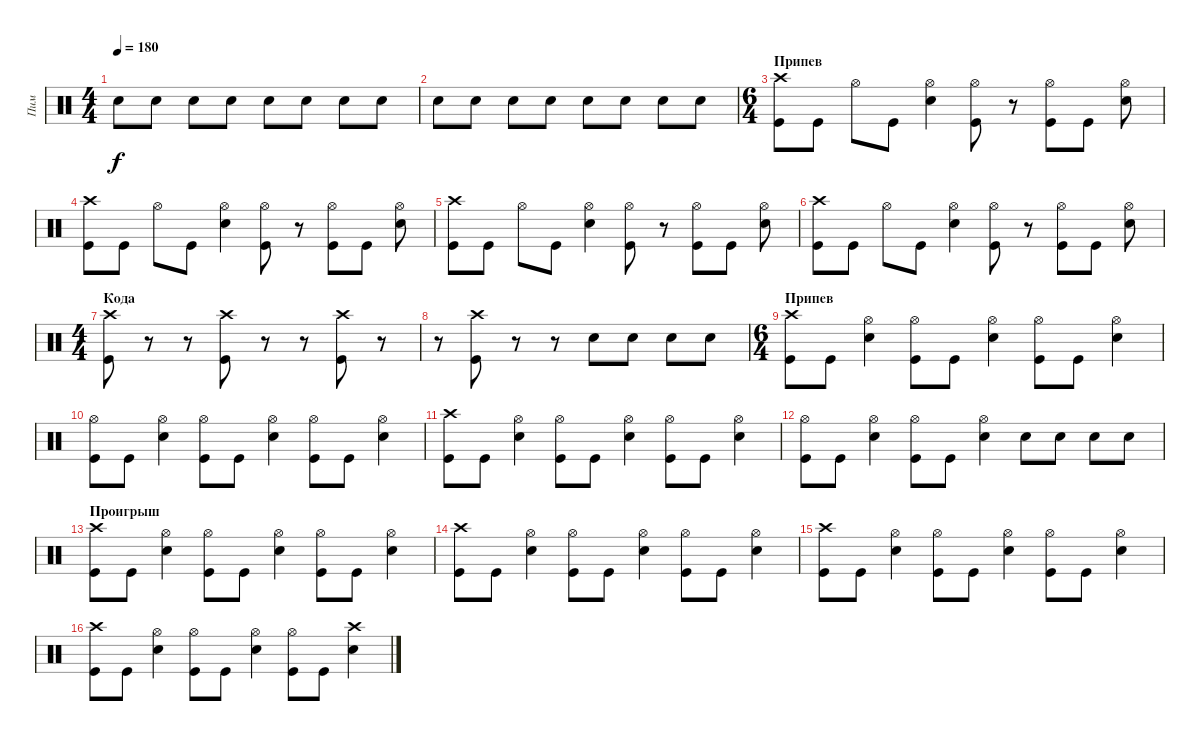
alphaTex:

\track ("Пим" "Пим") {instrument percussion}
\staff {score}
\articulation defaults
\ts (4 4)
\tempo 180
\clef neutral
\ks c "Snare (hit) 2".8{dy f} "Snare (hit) 2".8 "Snare (hit) 2".8 "Snare (hit) 2".8 "Snare (hit) 2".8 "Snare (hit) 2".8 "Snare (hit) 2".8 "Snare (hit) 2".8
|
"Snare (hit) 2".8 "Snare (hit) 2".8 "Snare (hit) 2".8 "Snare (hit) 2".8 "Snare (hit) 2".8 "Snare (hit) 2".8 "Snare (hit) 2".8 "Snare (hit) 2".8 |
\ts (6 4)
\section ("" "Припев")
("Crash high (hit)" "Kick (hit)").8 "Kick (hit)".8 "Hi-Hat (open)".8 "Kick (hit)".8 ("Hi-Hat (open)" "Snare (hit) 2").4 ("Hi-Hat (open)" "Kick (hit)").8 r.8 ("Hi-Hat (open)" "Kick (hit)").8 "Kick (hit)".8 ("Hi-Hat (open)" "Snare (hit) 2").8 |
("Crash high (hit)" "Kick (hit)").8 "Kick (hit)".8 "Hi-Hat (open)".8 "Kick (hit)".8 ("Hi-Hat (open)" "Snare (hit) 2").4 ("Hi-Hat (open)" "Kick (hit)").8 r.8 ("Hi-Hat (open)" "Kick (hit)").8 "Kick (hit)".8 ("Hi-Hat (open)" "Snare (hit) 2").8 |
("Crash high (hit)" "Kick (hit)").8 "Kick (hit)".8 "Hi-Hat (open)".8 "Kick (hit)".8 ("Hi-Hat (open)" "Snare (hit) 2").4 ("Hi-Hat (open)" "Kick (hit)").8 r.8 ("Hi-Hat (open)" "Kick (hit)").8 "Kick (hit)".8 ("Hi-Hat (open)" "Snare (hit) 2").8 |
("Crash high (hit)" "Kick (hit)").8 "Kick (hit)".8 "Hi-Hat (open)".8 "Kick (hit)".8 ("Hi-Hat (open)" "Snare (hit) 2").4 ("Hi-Hat (open)" "Kick (hit)").8 r.8 ("Hi-Hat (open)" "Kick (hit)").8 "Kick (hit)".8 ("Hi-Hat (open)" "Snare (hit) 2").8 |
\ts (4 4)
\section ("" "Кода")
("Crash high (hit)" "Kick (hit)").8 r.8 r.8 ("Crash high (hit)" "Kick (hit)").8 r.8 r.8 ("Crash high (hit)" "Kick (hit)").8 r.8 |
r.8 ("Crash high (hit)" "Kick (hit)").8 r.8 r.8 "Snare (hit) 2".8 "Snare (hit) 2".8 "Snare (hit) 2".8 "Snare (hit) 2".8 |
\ts (6 4)
\section ("" "Припев")
("Crash high (hit)" "Kick (hit)").8 "Kick (hit)".8 ("Hi-Hat (open)" "Snare (hit) 2").4 ("Hi-Hat (open)" "Kick (hit)").8 "Kick (hit)".8 ("Hi-Hat (open)" "Snare (hit) 2").4 ("Hi-Hat (open)" "Kick (hit)").8 "Kick (hit)".8 ("Hi-Hat (open)" "Snare (hit) 2").4 |
("Hi-Hat (open)" "Kick (hit)").8 "Kick (hit)".8 ("Hi-Hat (open)" "Snare (hit) 2").4 ("Hi-Hat (open)" "Kick (hit)").8 "Kick (hit)".8 ("Hi-Hat (open)" "Snare (hit) 2").4 ("Hi-Hat (open)" "Kick (hit)").8 "Kick (hit)".8 ("Hi-Hat (open)" "Snare (hit) 2").4 |
("Crash high (hit)" "Kick (hit)").8 "Kick (hit)".8 ("Hi-Hat (open)" "Snare (hit) 2").4 ("Hi-Hat (open)" "Kick (hit)").8 "Kick (hit)".8 ("Hi-Hat (open)" "Snare (hit) 2").4 ("Hi-Hat (open)" "Kick (hit)").8 "Kick (hit)".8 ("Hi-Hat (open)" "Snare (hit) 2").4 |
("Hi-Hat (open)" "Kick (hit)").8 "Kick (hit)".8 ("Hi-Hat (open)" "Snare (hit) 2").4 ("Hi-Hat (open)" "Kick (hit)").8 "Kick (hit)".8 ("Hi-Hat (open)" "Snare (hit) 2").4 "Snare (hit) 2".8 "Snare (hit) 2".8 "Snare (hit) 2".8 "Snare (hit) 2".8 |
\section ("" "Проигрыш")
("Crash high (hit)" "Kick (hit)").8 "Kick (hit)".8 ("Hi-Hat (open)" "Snare (hit) 2").4 ("Hi-Hat (open)" "Kick (hit)").8 "Kick (hit)".8 ("Hi-Hat (open)" "Snare (hit) 2").4 ("Hi-Hat (open)" "Kick (hit)").8 "Kick (hit)".8 ("Hi-Hat (open)" "Snare (hit) 2").4 |
("Crash high (hit)" "Kick (hit)").8 "Kick (hit)".8 ("Hi-Hat (open)" "Snare (hit) 2").4 ("Hi-Hat (open)" "Kick (hit)").8 "Kick (hit)".8 ("Hi-Hat (open)" "Snare (hit) 2").4 ("Hi-Hat (open)" "Kick (hit)").8 "Kick (hit)".8 ("Hi-Hat (open)" "Snare (hit) 2").4 |
("Crash high (hit)" "Kick (hit)").8 "Kick (hit)".8 ("Hi-Hat (open)" "Snare (hit) 2").4 ("Hi-Hat (open)" "Kick (hit)").8 "Kick (hit)".8 ("Hi-Hat (open)" "Snare (hit) 2").4 ("Hi-Hat (open)" "Kick (hit)").8 "Kick (hit)".8 ("Hi-Hat (open)" "Snare (hit) 2").4 |
("Crash high (hit)" "Kick (hit)").8 "Kick (hit)".8 ("Hi-Hat (open)" "Snare (hit) 2").4 ("Hi-Hat (open)" "Kick (hit)").8 "Kick (hit)".8 ("Hi-Hat (open)" "Snare (hit) 2").4 ("Hi-Hat (open)" "Kick (hit)").8 "Kick (hit)".8 ("Crash high (hit)" "Snare (hit) 2").4
